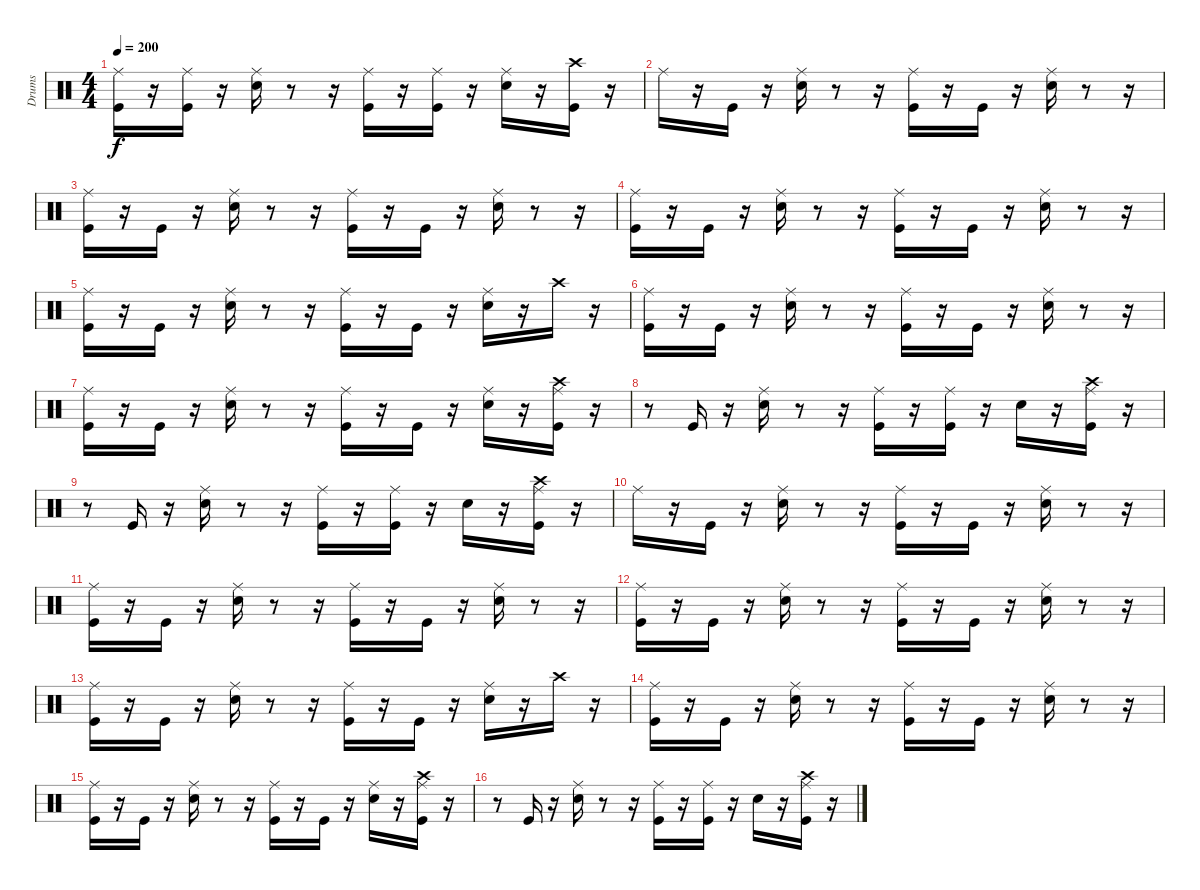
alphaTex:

\track ("Drums" "Drums") {instrument percussion}
\staff {score}
\articulation defaults
\ts (4 4)
\tempo 200
\clef neutral
\ks c
("Kick (hit)" "Ride (middle)").16{dy f} r.16 ("Ride (middle)" "Kick (hit)").16 r.16 ("Snare (hit) 2" "Ride (middle)").16 r.8 r.16 ("Ride (middle)" "Kick (hit)").16 r.16 ("Kick (hit)" "Ride (middle)").16 r.16 ("Snare (hit) 2" "Ride (middle)").16 r.16 ("Kick (hit)" "Crash high (hit)").16 r.16 |
"Ride (middle)".16 r.16 "Kick (hit)".16 r.16 ("Ride (middle)" "Snare (hit) 2").16 r.8 r.16 ("Ride (middle)" "Kick (hit)").16 r.16 "Kick (hit)".16 r.16 ("Ride (middle)" "Snare (hit) 2").16 r.8 r.16 |
("Ride (middle)" "Kick (hit)").16 r.16 "Kick (hit)".16 r.16 ("Ride (middle)" "Snare (hit) 2").16 r.8 r.16 ("Ride (middle)" "Kick (hit)").16 r.16 "Kick (hit)".16 r.16 ("Ride (middle)" "Snare (hit) 2").16 r.8 r.16 |
("Ride (middle)" "Kick (hit)").16 r.16 "Kick (hit)".16 r.16 ("Snare (hit) 2" "Ride (middle)").16 r.8 r.16 ("Ride (middle)" "Kick (hit)").16 r.16 "Kick (hit)".16 r.16 ("Ride (middle)" "Snare (hit) 2").16 r.8 r.16 |
("Ride (middle)" "Kick (hit)").16 r.16 "Kick (hit)".16 r.16 ("Ride (middle)" "Snare (hit) 2").16 r.8 r.16 ("Ride (middle)" "Kick (hit)").16 r.16 "Kick (hit)".16 r.16 ("Ride (middle)" "Snare (hit) 2").16 r.16 "Crash high (hit)".16 r.16 |
("Ride (middle)" "Kick (hit)").16 r.16 "Kick (hit)".16 r.16 ("Ride (middle)" "Snare (hit) 2").16 r.8 r.16 ("Ride (middle)" "Kick (hit)").16 r.16 "Kick (hit)".16 r.16 ("Ride (middle)" "Snare (hit) 2").16 r.8 r.16 |
("Ride (middle)" "Kick (hit)").16 r.16 "Kick (hit)".16 r.16 ("Ride (middle)" "Snare (hit) 2").16 r.8 r.16 ("Ride (middle)" "Kick (hit)").16 r.16 "Kick (hit)".16 r.16 ("Ride (middle)" "Snare (hit) 2").16 r.16 ("Ride (middle)" "Crash high (hit)" "Kick (hit)").16 r.16 |
r.8 "Kick (hit)".16 r.16 ("Snare (hit) 2" "Ride (middle)").16 r.8 r.16 ("Ride (middle)" "Kick (hit)").16 r.16 ("Kick (hit)" "Ride (middle)").16 r.16 "Snare (hit) 2".16 r.16 ("Crash high (hit)" "Ride (middle)" "Kick (hit)").16 r.16 |
r.8 "Kick (hit)".16 r.16 ("Snare (hit) 2" "Ride (middle)").16 r.8 r.16 ("Kick (hit)" "Ride (middle)").16 r.16 ("Ride (middle)" "Kick (hit)").16 r.16 "Snare (hit) 2".16 r.16 ("Kick (hit)" "Crash high (hit)" "Ride (middle)").16 r.16 |
"Ride (middle)".16 r.16 "Kick (hit)".16 r.16 ("Ride (middle)" "Snare (hit) 2").16 r.8 r.16 ("Ride (middle)" "Kick (hit)").16 r.16 "Kick (hit)".16 r.16 ("Ride (middle)" "Snare (hit) 2").16 r.8 r.16 |
("Ride (middle)" "Kick (hit)").16 r.16 "Kick (hit)".16 r.16 ("Ride (middle)" "Snare (hit) 2").16 r.8 r.16 ("Ride (middle)" "Kick (hit)").16 r.16 "Kick (hit)".16 r.16 ("Ride (middle)" "Snare (hit) 2").16 r.8 r.16 |
("Ride (middle)" "Kick (hit)").16 r.16 "Kick (hit)".16 r.16 ("Snare (hit) 2" "Ride (middle)").16 r.8 r.16 ("Ride (middle)" "Kick (hit)").16 r.16 "Kick (hit)".16 r.16 ("Ride (middle)" "Snare (hit) 2").16 r.8 r.16 |
("Ride (middle)" "Kick (hit)").16 r.16 "Kick (hit)".16 r.16 ("Ride (middle)" "Snare (hit) 2").16 r.8 r.16 ("Ride (middle)" "Kick (hit)").16 r.16 "Kick (hit)".16 r.16 ("Ride (middle)" "Snare (hit) 2").16 r.16 "Crash high (hit)".16 r.16 |
("Ride (middle)" "Kick (hit)").16 r.16 "Kick (hit)".16 r.16 ("Ride (middle)" "Snare (hit) 2").16 r.8 r.16 ("Ride (middle)" "Kick (hit)").16 r.16 "Kick (hit)".16 r.16 ("Ride (middle)" "Snare (hit) 2").16 r.8 r.16 |
("Ride (middle)" "Kick (hit)").16 r.16 "Kick (hit)".16 r.16 ("Ride (middle)" "Snare (hit) 2").16 r.8 r.16 ("Ride (middle)" "Kick (hit)").16 r.16 "Kick (hit)".16 r.16 ("Ride (middle)" "Snare (hit) 2").16 r.16 ("Ride (middle)" "Crash high (hit)" "Kick (hit)").16 r.16 |
r.8 "Kick (hit)".16 r.16 ("Snare (hit) 2" "Ride (middle)").16 r.8 r.16 ("Ride (middle)" "Kick (hit)").16 r.16 ("Kick (hit)" "Ride (middle)").16 r.16 "Snare (hit) 2".16 r.16 ("Crash high (hit)" "Ride (middle)" "Kick (hit)").16 r.16
